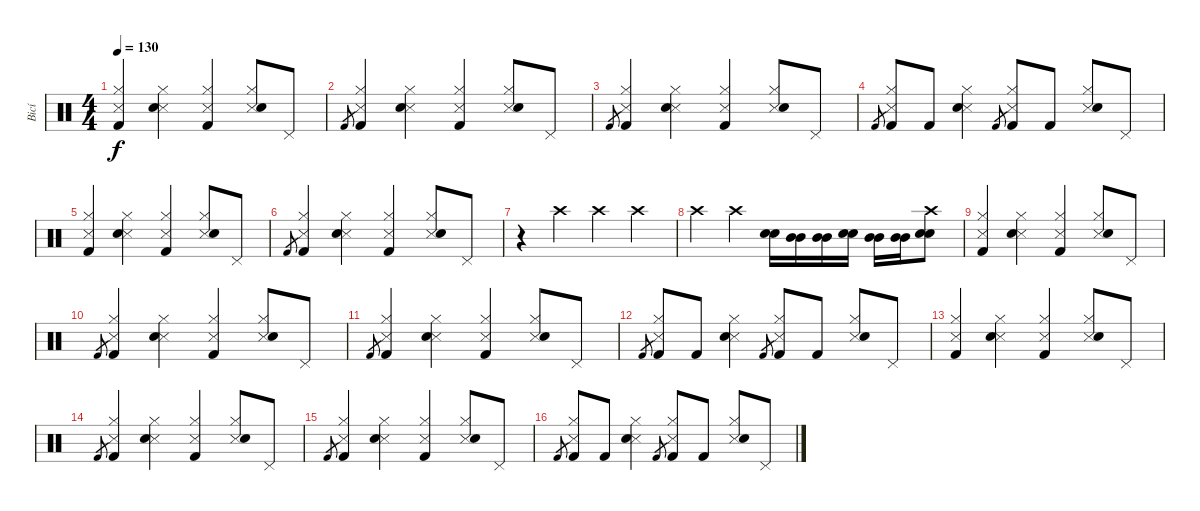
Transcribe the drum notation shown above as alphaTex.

\track ("Bicí" "Bicí") {instrument percussion}
\staff {score}
\articulation defaults
\ts (4 4)
\tempo 130
\clef neutral
\ks c
("Snare (side stick) 3" "Hi-Hat (closed)" "Kick (hit) 2").4{dy f} ("Snare (side stick) 3" "Hi-Hat (closed)" "Snare (hit) 2").4 ("Snare (side stick) 3" "Hi-Hat (closed)" "Kick (hit) 2").4 ("Snare (side stick) 3" "Hi-Hat (closed)" "Snare (hit) 2").8 "Pedal Hi-Hat (hit)".8 |
"Kick (hit) 2".8{gr} ("Snare (side stick) 3" "Hi-Hat (closed)" "Kick (hit) 2").4 ("Snare (side stick) 3" "Hi-Hat (closed)" "Snare (hit) 2").4 ("Snare (side stick) 3" "Hi-Hat (closed)" "Kick (hit) 2").4 ("Snare (side stick) 3" "Hi-Hat (closed)" "Snare (hit) 2").8 "Pedal Hi-Hat (hit)".8 |
"Kick (hit) 2".8{gr} ("Snare (side stick) 3" "Hi-Hat (closed)" "Kick (hit) 2").4 ("Snare (side stick) 3" "Hi-Hat (closed)" "Snare (hit) 2").4 ("Snare (side stick) 3" "Hi-Hat (closed)" "Kick (hit) 2").4 ("Snare (side stick) 3" "Hi-Hat (closed)" "Snare (hit) 2").8 "Pedal Hi-Hat (hit)".8 |
"Kick (hit) 2".8{gr} ("Snare (side stick) 3" "Hi-Hat (closed)" "Kick (hit) 2").8 "Kick (hit) 2".8 ("Snare (side stick) 3" "Hi-Hat (closed)" "Snare (hit) 2").4 "Kick (hit) 2".8{gr} ("Snare (side stick) 3" "Hi-Hat (closed)" "Kick (hit) 2").8 "Kick (hit) 2".8 ("Snare (side stick) 3" "Hi-Hat (closed)" "Snare (hit) 2").8 "Pedal Hi-Hat (hit)".8 |
("Snare (side stick) 3" "Hi-Hat (closed)" "Kick (hit) 2").4 ("Snare (side stick) 3" "Hi-Hat (closed)" "Snare (hit) 2").4 ("Snare (side stick) 3" "Hi-Hat (closed)" "Kick (hit) 2").4 ("Snare (side stick) 3" "Hi-Hat (closed)" "Snare (hit) 2").8 "Pedal Hi-Hat (hit)".8 |
"Kick (hit) 2".8{gr} ("Snare (side stick) 3" "Hi-Hat (closed)" "Kick (hit) 2").4 ("Snare (side stick) 3" "Hi-Hat (closed)" "Snare (hit) 2").4 ("Snare (side stick) 3" "Hi-Hat (closed)" "Kick (hit) 2").4 ("Snare (side stick) 3" "Hi-Hat (closed)" "Snare (hit) 2").8 "Pedal Hi-Hat (hit)".8 |
r.4 "Crash high (hit)".4 "Crash high (hit)".4 "Crash high (hit)".4 |
"Crash high (hit)".4 "Crash high (hit)".4 ("Snare (hit) 2" "Snare (hit) 2").16 ("Mid Tom (hit)" "Mid Tom (hit)").16 ("Mid Tom (hit)" "Mid Tom (hit)").16 ("Snare (hit) 2" "Snare (hit) 2").16 ("Mid Tom (hit)" "Mid Tom (hit)").16 ("Mid Tom (hit)" "Mid Tom (hit)").16 ("Snare (hit) 2" "Snare (hit) 2" "Crash high (hit)").8 |
("Snare (side stick) 3" "Hi-Hat (closed)" "Kick (hit) 2").4 ("Snare (side stick) 3" "Hi-Hat (closed)" "Snare (hit) 2").4 ("Snare (side stick) 3" "Hi-Hat (closed)" "Kick (hit) 2").4 ("Snare (side stick) 3" "Hi-Hat (closed)" "Snare (hit) 2").8 "Pedal Hi-Hat (hit)".8 |
"Kick (hit) 2".8{gr} ("Snare (side stick) 3" "Hi-Hat (closed)" "Kick (hit) 2").4 ("Snare (side stick) 3" "Hi-Hat (closed)" "Snare (hit) 2").4 ("Snare (side stick) 3" "Hi-Hat (closed)" "Kick (hit) 2").4 ("Snare (side stick) 3" "Hi-Hat (closed)" "Snare (hit) 2").8 "Pedal Hi-Hat (hit)".8 |
"Kick (hit) 2".8{gr} ("Snare (side stick) 3" "Hi-Hat (closed)" "Kick (hit) 2").4 ("Snare (side stick) 3" "Hi-Hat (closed)" "Snare (hit) 2").4 ("Snare (side stick) 3" "Hi-Hat (closed)" "Kick (hit) 2").4 ("Snare (side stick) 3" "Hi-Hat (closed)" "Snare (hit) 2").8 "Pedal Hi-Hat (hit)".8 |
"Kick (hit) 2".8{gr} ("Snare (side stick) 3" "Hi-Hat (closed)" "Kick (hit) 2").8 "Kick (hit) 2".8 ("Snare (side stick) 3" "Hi-Hat (closed)" "Snare (hit) 2").4 "Kick (hit) 2".8{gr} ("Snare (side stick) 3" "Hi-Hat (closed)" "Kick (hit) 2").8 "Kick (hit) 2".8 ("Snare (side stick) 3" "Hi-Hat (closed)" "Snare (hit) 2").8 "Pedal Hi-Hat (hit)".8 |
("Snare (side stick) 3" "Hi-Hat (closed)" "Kick (hit) 2").4 ("Snare (side stick) 3" "Hi-Hat (closed)" "Snare (hit) 2").4 ("Snare (side stick) 3" "Hi-Hat (closed)" "Kick (hit) 2").4 ("Snare (side stick) 3" "Hi-Hat (closed)" "Snare (hit) 2").8 "Pedal Hi-Hat (hit)".8 |
"Kick (hit) 2".8{gr} ("Snare (side stick) 3" "Hi-Hat (closed)" "Kick (hit) 2").4 ("Snare (side stick) 3" "Hi-Hat (closed)" "Snare (hit) 2").4 ("Snare (side stick) 3" "Hi-Hat (closed)" "Kick (hit) 2").4 ("Snare (side stick) 3" "Hi-Hat (closed)" "Snare (hit) 2").8 "Pedal Hi-Hat (hit)".8 |
"Kick (hit) 2".8{gr} ("Snare (side stick) 3" "Hi-Hat (closed)" "Kick (hit) 2").4 ("Snare (side stick) 3" "Hi-Hat (closed)" "Snare (hit) 2").4 ("Snare (side stick) 3" "Hi-Hat (closed)" "Kick (hit) 2").4 ("Snare (side stick) 3" "Hi-Hat (closed)" "Snare (hit) 2").8 "Pedal Hi-Hat (hit)".8 |
"Kick (hit) 2".8{gr} ("Snare (side stick) 3" "Hi-Hat (closed)" "Kick (hit) 2").8 "Kick (hit) 2".8 ("Snare (side stick) 3" "Hi-Hat (closed)" "Snare (hit) 2").4 "Kick (hit) 2".8{gr} ("Snare (side stick) 3" "Hi-Hat (closed)" "Kick (hit) 2").8 "Kick (hit) 2".8 ("Snare (side stick) 3" "Hi-Hat (closed)" "Snare (hit) 2").8 "Pedal Hi-Hat (hit)".8
